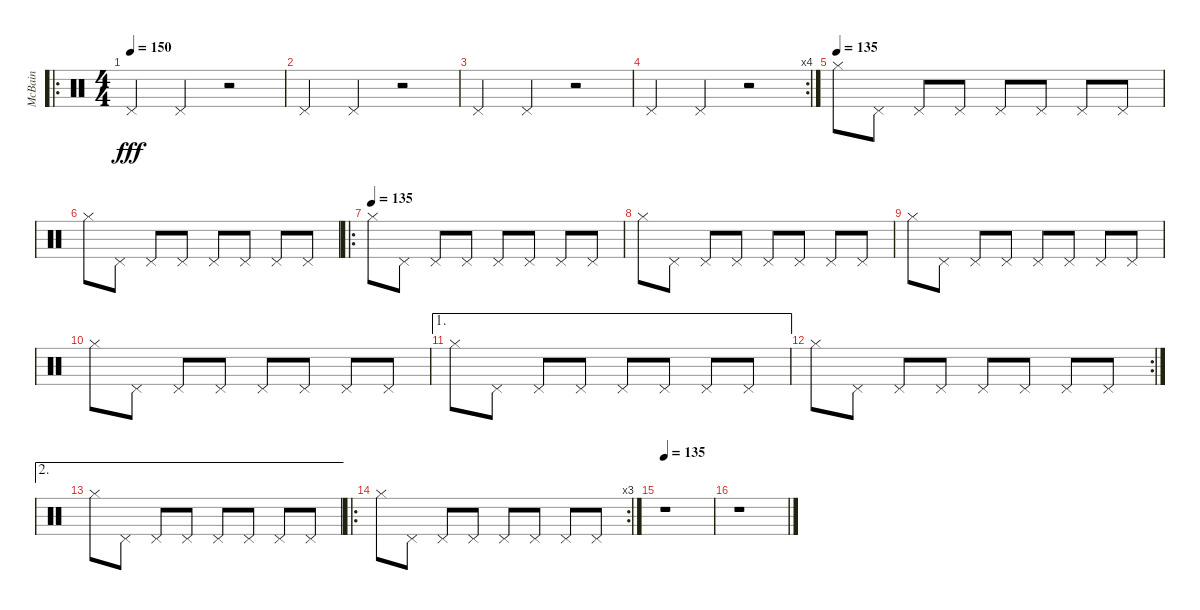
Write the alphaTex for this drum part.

\track ("McBain" "McBain") {instrument percussion}
\staff {score}
\articulation defaults
\ro
\ts (4 4)
\tempo 150
\tempo 135
\tempo 150
\clef neutral
\ks c "Pedal Hi-Hat (hit)".4{dy fff} "Pedal Hi-Hat (hit)".4
r.2 |
"Pedal Hi-Hat (hit)".4 "Pedal Hi-Hat (hit)".4 r.2 |
"Pedal Hi-Hat (hit)".4 "Pedal Hi-Hat (hit)".4 r.2 |
\rc 4 "Pedal Hi-Hat (hit)".4 "Pedal Hi-Hat (hit)".4
r.2 |
\tempo (135)
"Hi-Hat (closed)".8 "Pedal Hi-Hat (hit)".8 "Pedal Hi-Hat (hit)".8 "Pedal Hi-Hat (hit)".8 "Pedal Hi-Hat (hit)".8 "Pedal Hi-Hat (hit)".8 "Pedal Hi-Hat (hit)".8 "Pedal Hi-Hat (hit)".8 |
"Hi-Hat (closed)".8 "Pedal Hi-Hat (hit)".8 "Pedal Hi-Hat (hit)".8 "Pedal Hi-Hat (hit)".8 "Pedal Hi-Hat (hit)".8 "Pedal Hi-Hat (hit)".8 "Pedal Hi-Hat (hit)".8 "Pedal Hi-Hat (hit)".8 |
\ro
\tempo (135)
"Hi-Hat (closed)".8 "Pedal Hi-Hat (hit)".8 "Pedal Hi-Hat (hit)".8 "Pedal Hi-Hat (hit)".8 "Pedal Hi-Hat (hit)".8 "Pedal Hi-Hat (hit)".8 "Pedal Hi-Hat (hit)".8 "Pedal Hi-Hat (hit)".8 |
"Hi-Hat (closed)".8 "Pedal Hi-Hat (hit)".8 "Pedal Hi-Hat (hit)".8 "Pedal Hi-Hat (hit)".8 "Pedal Hi-Hat (hit)".8 "Pedal Hi-Hat (hit)".8 "Pedal Hi-Hat (hit)".8 "Pedal Hi-Hat (hit)".8 |
"Hi-Hat (closed)".8 "Pedal Hi-Hat (hit)".8 "Pedal Hi-Hat (hit)".8 "Pedal Hi-Hat (hit)".8 "Pedal Hi-Hat (hit)".8 "Pedal Hi-Hat (hit)".8 "Pedal Hi-Hat (hit)".8 "Pedal Hi-Hat (hit)".8 |
"Hi-Hat (closed)".8 "Pedal Hi-Hat (hit)".8 "Pedal Hi-Hat (hit)".8 "Pedal Hi-Hat (hit)".8 "Pedal Hi-Hat (hit)".8 "Pedal Hi-Hat (hit)".8 "Pedal Hi-Hat (hit)".8 "Pedal Hi-Hat (hit)".8 |
\ae 1 "Hi-Hat (closed)".8 "Pedal Hi-Hat (hit)".8 "Pedal Hi-Hat (hit)".8 "Pedal Hi-Hat (hit)".8 "Pedal Hi-Hat (hit)".8 "Pedal Hi-Hat (hit)".8 "Pedal Hi-Hat (hit)".8 "Pedal Hi-Hat (hit)".8
|
\rc 2 "Hi-Hat (closed)".8 "Pedal Hi-Hat (hit)".8 "Pedal Hi-Hat (hit)".8 "Pedal Hi-Hat (hit)".8 "Pedal Hi-Hat (hit)".8 "Pedal Hi-Hat (hit)".8 "Pedal Hi-Hat (hit)".8 "Pedal Hi-Hat (hit)".8
|
\ae 2 "Hi-Hat (closed)".8 "Pedal Hi-Hat (hit)".8 "Pedal Hi-Hat (hit)".8 "Pedal Hi-Hat (hit)".8 "Pedal Hi-Hat (hit)".8 "Pedal Hi-Hat (hit)".8 "Pedal Hi-Hat (hit)".8 "Pedal Hi-Hat (hit)".8
|
\ro
\rc 3 "Hi-Hat (closed)".8 "Pedal Hi-Hat (hit)".8 "Pedal Hi-Hat (hit)".8 "Pedal Hi-Hat (hit)".8 "Pedal Hi-Hat (hit)".8 "Pedal Hi-Hat (hit)".8 "Pedal Hi-Hat (hit)".8 "Pedal Hi-Hat (hit)".8
|
\tempo 135
r.1 |
r.1
